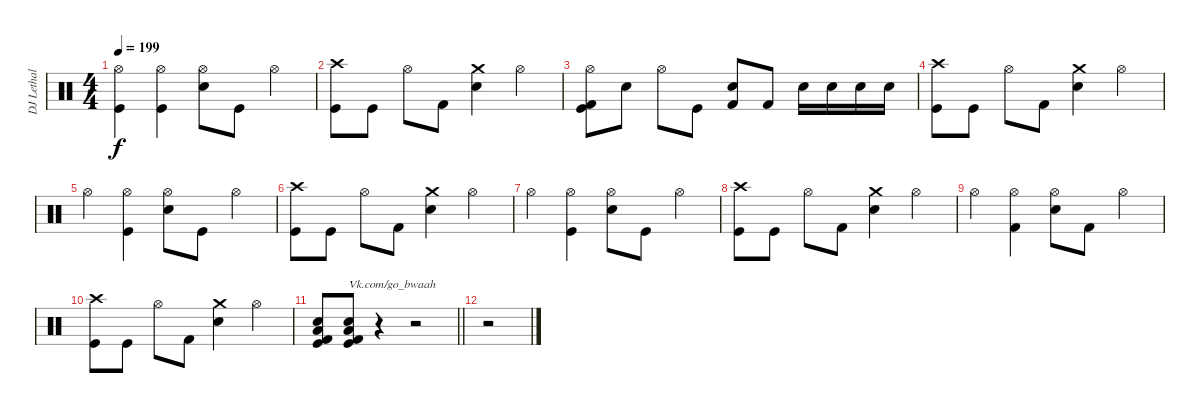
\track ("DJ Lethal + John" "DJ Lethal ") {instrument percussion}
\staff {score}
\articulation defaults
\ts (4 4)
\tempo 199
\clef neutral
\ks c
("Hi-Hat (open)" "Kick (hit)").4{dy f} ("Hi-Hat (open)" "Kick (hit)").4 ("Hi-Hat (open)" "Electric Snare (hit)").8 "Kick (hit)".8 "Hi-Hat (open)".4 |
("Crash high (hit)" "Kick (hit)").8 "Kick (hit)".8 "Hi-Hat (open)".8 "Kick (hit) 2".8 ("Crash medium (hit)" "Electric Snare (hit)").4 "Hi-Hat (open)".4 |
("Hi-Hat (open)" "Kick (hit)" "Kick (hit) 2").8 "Electric Snare (hit)".8 "Hi-Hat (open)".8 "Kick (hit)".8 ("Kick (hit) 2" "Electric Snare (hit)").8 "Kick (hit) 2".8 "Electric Snare (hit)".16 "Electric Snare (hit)".16 "Electric Snare (hit)".16 "Electric Snare (hit)".16 |
("Crash high (hit)" "Kick (hit)").8 "Kick (hit)".8 "Hi-Hat (open)".8 "Kick (hit) 2".8 ("Crash medium (hit)" "Electric Snare (hit)").4 "Hi-Hat (open)".4 |
"Hi-Hat (open)".4 ("Hi-Hat (open)" "Kick (hit)").4 ("Hi-Hat (open)" "Electric Snare (hit)").8 "Kick (hit)".8 "Hi-Hat (open)".4 |
("Crash high (hit)" "Kick (hit)").8 "Kick (hit)".8 "Hi-Hat (open)".8 "Kick (hit) 2".8 ("Crash medium (hit)" "Electric Snare (hit)").4 "Hi-Hat (open)".4 |
"Hi-Hat (open)".4 ("Hi-Hat (open)" "Kick (hit)").4 ("Hi-Hat (open)" "Electric Snare (hit)").8 "Kick (hit)".8 "Hi-Hat (open)".4 |
("Crash high (hit)" "Kick (hit)").8 "Kick (hit)".8 "Hi-Hat (open)".8 "Kick (hit) 2".8 ("Crash medium (hit)" "Electric Snare (hit)").4 "Hi-Hat (open)".4 |
"Hi-Hat (open)".4 ("Hi-Hat (open)" "Kick (hit) 2").4 ("Hi-Hat (open)" "Electric Snare (hit)").8 "Kick (hit) 2".8 "Hi-Hat (open)".4 |
("Crash high (hit)" "Kick (hit)").8 "Kick (hit)".8 "Hi-Hat (open)".8 "Kick (hit) 2".8 ("Crash medium (hit)" "Electric Snare (hit)").4 "Hi-Hat (open)".4 |
\barLineRight lightlight
("Low Floor Tom (hit)" "Electric Snare (hit)" "Kick (hit)" "Kick (hit) 2").8 ("Low Floor Tom (hit)" "Electric Snare (hit)" "Kick (hit)" "Kick (hit) 2").8{txt "Vk.com/go_bwaah"} r.4 r.2 |
r.2
